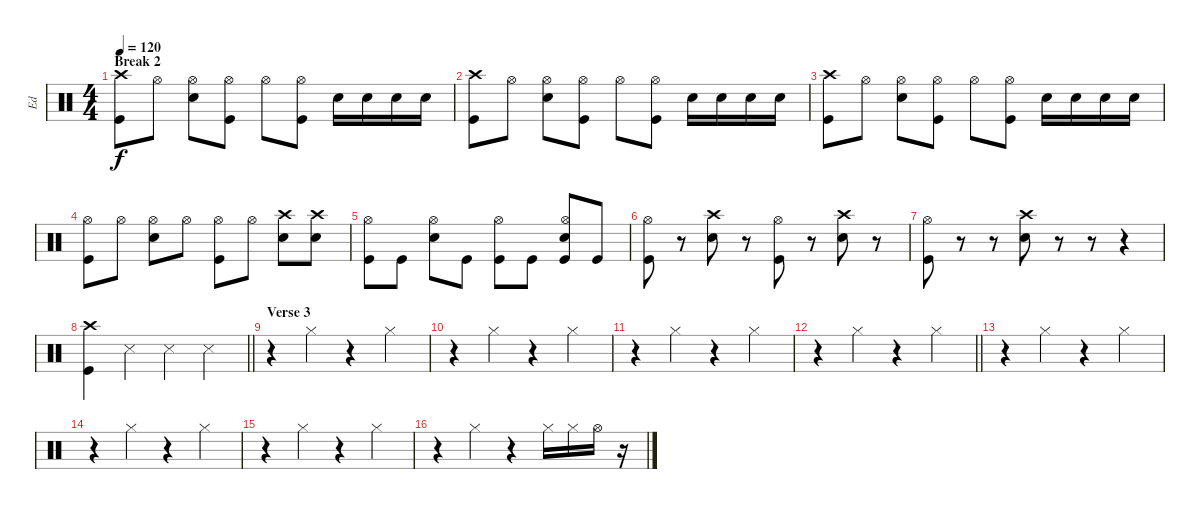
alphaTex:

\track ("Ed" "Ed") {instrument percussion}
\staff {score}
\articulation defaults
\ts (4 4)
\section ("" "Break 2")
\tempo 120
\clef neutral
\ks c
("Crash high (hit)" "Kick (hit)").8{dy f} "Hi-Hat (open)".8 ("Snare (hit) 2" "Hi-Hat (open)").8 ("Kick (hit)" "Hi-Hat (open)").8 "Hi-Hat (open)".8 ("Kick (hit)" "Hi-Hat (open)").8 "Snare (hit) 2".16 "Snare (hit) 2".16 "Snare (hit) 2".16 "Snare (hit) 2".16 |
("Kick (hit)" "Crash high (hit)").8 "Hi-Hat (open)".8 ("Snare (hit) 2" "Hi-Hat (open)").8 ("Kick (hit)" "Hi-Hat (open)").8 "Hi-Hat (open)".8 ("Kick (hit)" "Hi-Hat (open)").8 "Snare (hit) 2".16 "Snare (hit) 2".16 "Snare (hit) 2".16 "Snare (hit) 2".16 |
("Kick (hit)" "Crash high (hit)").8 "Hi-Hat (open)".8 ("Snare (hit) 2" "Hi-Hat (open)").8 ("Kick (hit)" "Hi-Hat (open)").8 "Hi-Hat (open)".8 ("Kick (hit)" "Hi-Hat (open)").8 "Snare (hit) 2".16 "Snare (hit) 2".16 "Snare (hit) 2".16 "Snare (hit) 2".16 |
("Hi-Hat (open)" "Kick (hit)").8 "Hi-Hat (open)".8 ("Snare (hit) 2" "Hi-Hat (open)").8 "Hi-Hat (open)".8 ("Kick (hit)" "Hi-Hat (open)").8 "Hi-Hat (open)".8 ("Crash high (hit)" "Snare (hit) 2").8 ("Crash high (hit)" "Snare (hit) 2").8{volume 14} |
("Hi-Hat (open)" "Kick (hit)").8{volume 10} "Kick (hit)".8 ("Snare (hit) 2" "Hi-Hat (open)").8 "Kick (hit)".8 ("Kick (hit)" "Hi-Hat (open)").8 "Kick (hit)".8 ("Kick (hit)" "Snare (hit) 2" "Hi-Hat (open)").8 "Kick (hit)".8 |
("Hi-Hat (open)" "Kick (hit)").8 r.8 ("Crash high (hit)" "Snare (hit) 2").8 r.8 ("Kick (hit)" "Hi-Hat (open)").8 r.8 ("Crash high (hit)" "Snare (hit) 2").8 r.8 |
("Hi-Hat (open)" "Kick (hit)").8 r.8 r.8 ("Snare (hit) 2" "Crash high (hit)").8 r.8 r.8 r.4 |
\barLineRight lightlight
("Crash high (hit)" "Kick (hit)").4 "Snare (side stick) 3".4 "Snare (side stick) 3".4 "Snare (side stick) 3".4 |
\section ("" "Verse 3")
r.4 "Hi-Hat (closed)".4 r.4 "Hi-Hat (closed)".4 |
r.4 "Hi-Hat (closed)".4 r.4 "Hi-Hat (closed)".4 |
r.4 "Hi-Hat (closed)".4 r.4 "Hi-Hat (closed)".4 |
\barLineRight lightlight
r.4 "Hi-Hat (closed)".4 r.4 "Hi-Hat (closed)".4 |
r.4 "Hi-Hat (closed)".4 r.4 "Hi-Hat (closed)".4 |
r.4 "Hi-Hat (closed)".4 r.4 "Hi-Hat (closed)".4 |
r.4 "Hi-Hat (closed)".4 r.4 "Hi-Hat (closed)".4 |
r.4 "Hi-Hat (closed)".4 r.4 "Hi-Hat (closed)".16 "Hi-Hat (closed)".16 "Hi-Hat (open)".16 r.16
